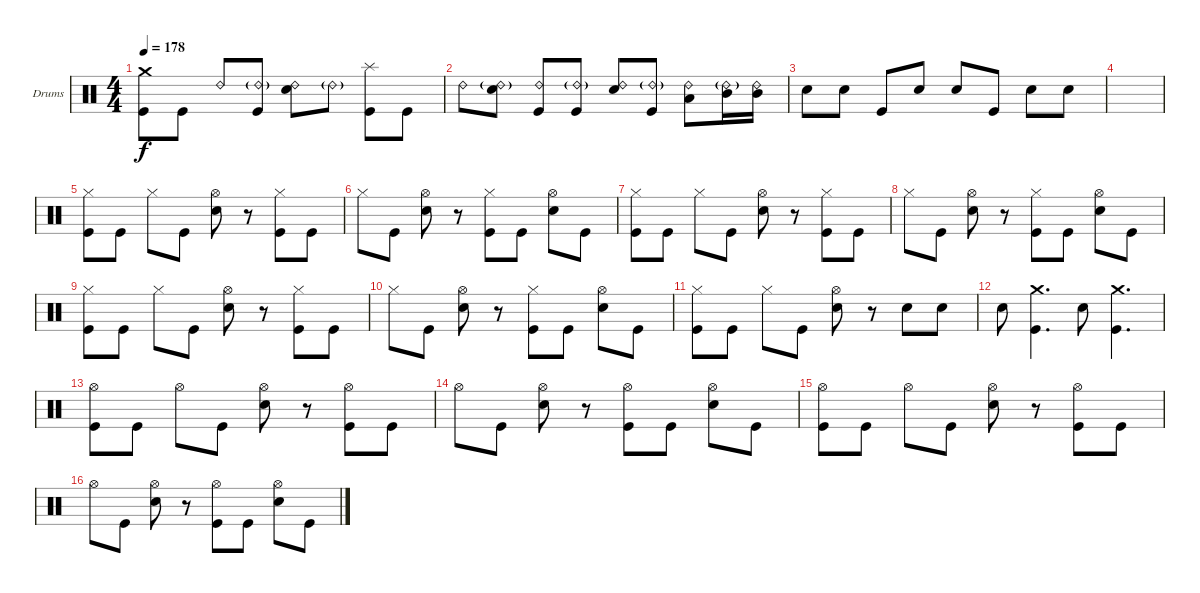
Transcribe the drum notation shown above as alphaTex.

\bracketExtendMode groupsimilarinstruments
\firstSystemTrackNameOrientation horizontal
\otherSystemsTrackNameOrientation horizontal
\track ("Drums" "Drums") {instrument percussion}
\staff {score}
\articulation defaults
\ts (4 4)
\tempo 178
\clef neutral
\ks c
("Kick (hit)" "Crash medium (hit)").8{dy f} "Kick (hit)".8 "Ride (bell) 2".8 ("Kick (hit)" "Ride (bell) 2"{g}).8 ("Snare (hit) 2" "Ride (bell) 2").8 "Ride (bell) 2"{g}.8 ("Kick (hit)" "Splash (hit)").8 "Kick (hit)".8 |
"Ride (bell) 2".8 ("Snare (hit) 2" "Ride (bell) 2"{g}).8 ("Kick (hit)" "Ride (bell) 2").8 ("Kick (hit)" "Ride (bell) 2"{g}).8 ("Snare (hit) 2" "Ride (bell) 2").8 ("Kick (hit)" "Ride (bell) 2"{g}).8 ("Low Tom (hit)" "Ride (bell) 2").8 ("Mid Tom (hit)" "Ride (bell) 2"{g}).16 ("Mid Tom (hit)" "Ride (bell) 2").16 |
"Snare (hit) 2".8 "Snare (hit) 2".8 "Kick (hit)".8 "Snare (hit) 2".8 "Snare (hit) 2".8 "Kick (hit)".8 "Snare (hit) 2".8 "Snare (hit) 2".8 |
|
("Hi-Hat (closed)" "Kick (hit)").8 "Kick (hit)".8 "Hi-Hat (closed)".8 "Kick (hit)".8 ("Hi-Hat (open)" "Snare (hit) 2").8 r.8 ("Hi-Hat (closed)" "Kick (hit)").8 "Kick (hit)".8 |
"Hi-Hat (closed)".8 "Kick (hit)".8 ("Hi-Hat (open)" "Snare (hit) 2").8 r.8 ("Hi-Hat (closed)" "Kick (hit)").8 "Kick (hit)".8 ("Hi-Hat (open)" "Snare (hit) 2").8 "Kick (hit)".8 |
("Hi-Hat (closed)" "Kick (hit)").8 "Kick (hit)".8 "Hi-Hat (closed)".8 "Kick (hit)".8 ("Hi-Hat (open)" "Snare (hit) 2").8 r.8 ("Hi-Hat (closed)" "Kick (hit)").8 "Kick (hit)".8 |
"Hi-Hat (closed)".8 "Kick (hit)".8 ("Hi-Hat (open)" "Snare (hit) 2").8 r.8 ("Hi-Hat (closed)" "Kick (hit)").8 "Kick (hit)".8 ("Hi-Hat (open)" "Snare (hit) 2").8 "Kick (hit)".8 |
("Hi-Hat (closed)" "Kick (hit)").8 "Kick (hit)".8 "Hi-Hat (closed)".8 "Kick (hit)".8 ("Hi-Hat (open)" "Snare (hit) 2").8 r.8 ("Hi-Hat (closed)" "Kick (hit)").8 "Kick (hit)".8 |
"Hi-Hat (closed)".8 "Kick (hit)".8 ("Hi-Hat (open)" "Snare (hit) 2").8 r.8 ("Hi-Hat (closed)" "Kick (hit)").8 "Kick (hit)".8 ("Hi-Hat (open)" "Snare (hit) 2").8 "Kick (hit)".8 |
("Hi-Hat (closed)" "Kick (hit)").8 "Kick (hit)".8 "Hi-Hat (closed)".8 "Kick (hit)".8 ("Hi-Hat (open)" "Snare (hit) 2").8 r.8 "Snare (hit) 2".8 "Snare (hit) 2".8 |
"Snare (hit) 2".8 ("Kick (hit)" "Crash medium (hit)").4{d} "Snare (hit) 2".8 ("Kick (hit)" "Crash medium (hit)").4{d} |
("Hi-Hat (open)" "Kick (hit)").8 "Kick (hit)".8 "Hi-Hat (open)".8 "Kick (hit)".8 ("Hi-Hat (open)" "Snare (hit) 2").8 r.8 ("Hi-Hat (open)" "Kick (hit)").8 "Kick (hit)".8 |
"Hi-Hat (open)".8 "Kick (hit)".8 ("Hi-Hat (open)" "Snare (hit) 2").8 r.8 ("Hi-Hat (open)" "Kick (hit)").8 "Kick (hit)".8 ("Hi-Hat (open)" "Snare (hit) 2").8 "Kick (hit)".8 |
("Hi-Hat (open)" "Kick (hit)").8 "Kick (hit)".8 "Hi-Hat (open)".8 "Kick (hit)".8 ("Hi-Hat (open)" "Snare (hit) 2").8 r.8 ("Hi-Hat (open)" "Kick (hit)").8 "Kick (hit)".8 |
"Hi-Hat (open)".8 "Kick (hit)".8 ("Hi-Hat (open)" "Snare (hit) 2").8 r.8 ("Hi-Hat (open)" "Kick (hit)").8 "Kick (hit)".8 ("Hi-Hat (open)" "Snare (hit) 2").8 "Kick (hit)".8
